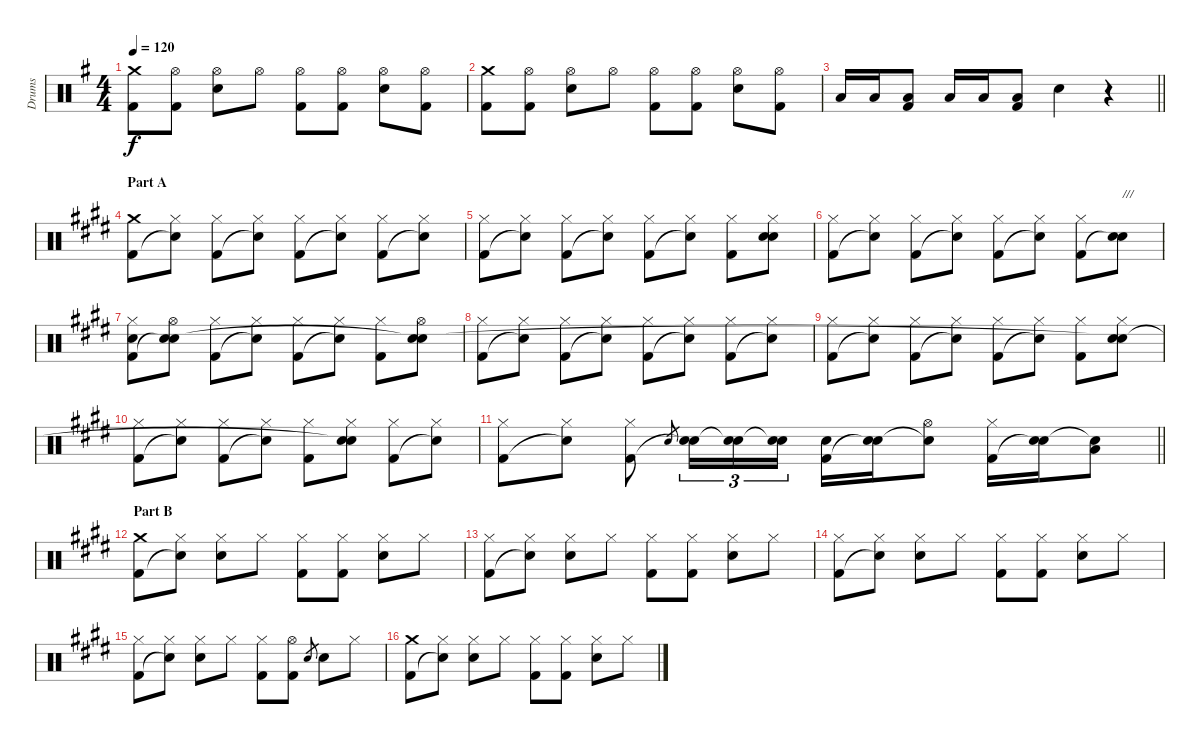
\track ("Drums" "Drums") {instrument percussion}
\staff {score}
\articulation defaults
\ts (4 4)
\tempo 120
\clef neutral
\ks g
("Crash medium (hit)" "Kick (hit) 2").8{dy f} ("Hi-Hat (open)" "Kick (hit) 2").8 ("Hi-Hat (open)" "Electric Snare (hit)").8 "Hi-Hat (open)".8 ("Hi-Hat (open)" "Kick (hit) 2").8 ("Hi-Hat (open)" "Kick (hit) 2").8 ("Hi-Hat (open)" "Electric Snare (hit)").8 ("Hi-Hat (open)" "Kick (hit) 2").8 |
("Crash medium (hit)" "Kick (hit) 2").8 ("Hi-Hat (open)" "Kick (hit) 2").8 ("Hi-Hat (open)" "Electric Snare (hit)").8 "Hi-Hat (open)".8 ("Hi-Hat (open)" "Kick (hit) 2").8 ("Hi-Hat (open)" "Kick (hit) 2").8 ("Hi-Hat (open)" "Electric Snare (hit)").8 ("Hi-Hat (open)" "Kick (hit) 2").8 |
\barLineRight lightlight "Low Tom (hit)".16 "Low Tom (hit)".16
("Low Tom (hit)" "Kick (hit) 2").8 "Low Floor Tom (hit)".16 "Low Floor Tom (hit)".16 ("Low Floor Tom (hit)" "Kick (hit) 2").8 "Electric Snare (hit)".4 r.4 |
\section ("" "Part A")
\ks e
("Crash medium (hit)" "Kick (hit) 2").8 ("Hi-Hat (closed)" "Snare (hit)"{t}).8 ("Hi-Hat (closed)" "Kick (hit) 2").8 ("Hi-Hat (closed)" "Snare (hit)"{t}).8 ("Hi-Hat (closed)" "Kick (hit) 2").8 ("Hi-Hat (closed)" "Snare (hit)"{t}).8 ("Hi-Hat (closed)" "Kick (hit) 2").8 ("Hi-Hat (closed)" "Snare (hit)"{t}).8 |
("Hi-Hat (closed)" "Kick (hit) 2").8 ("Hi-Hat (closed)" "Snare (hit)"{t}).8 ("Hi-Hat (closed)" "Kick (hit) 2").8 ("Hi-Hat (closed)" "Snare (hit)"{t}).8 ("Hi-Hat (closed)" "Kick (hit) 2").8 ("Hi-Hat (closed)" "Snare (hit)"{t}).8 ("Hi-Hat (closed)" "Kick (hit) 2").8 ("Hi-Hat (closed)" "Electric Snare (hit)" "Snare (hit)").8 |
("Hi-Hat (closed)" "Kick (hit) 2").8 ("Hi-Hat (closed)" "Snare (hit)"{t}).8 ("Hi-Hat (closed)" "Kick (hit) 2").8 ("Hi-Hat (closed)" "Snare (hit)"{t}).8 ("Hi-Hat (closed)" "Kick (hit) 2").8 ("Hi-Hat (closed)" "Snare (hit)"{t}).8 ("Hi-Hat (closed)" "Kick (hit) 2").8 ("Electric Snare (hit)" "Snare (hit)"{t}).8{txt "///"} |
("Hi-Hat (closed)" "Electric Snare (hit)" "Kick (hit) 2").8 ("Hi-Hat (open)" "Electric Snare (hit)" "Snare (hit)"{t}).8 ("Hi-Hat (closed)" "Kick (hit) 2").8 ("Hi-Hat (closed)" "Snare (hit)"{t}).8 ("Hi-Hat (closed)" "Kick (hit) 2").8 ("Hi-Hat (closed)" "Snare (hit)"{t}).8 ("Hi-Hat (closed)" "Kick (hit) 2").8 ("Hi-Hat (open)" "Electric Snare (hit)" "Snare (hit)"{t}).8 |
("Hi-Hat (closed)" "Kick (hit) 2").8 ("Hi-Hat (closed)" "Snare (hit)"{t}).8 ("Hi-Hat (closed)" "Kick (hit) 2").8 ("Hi-Hat (closed)" "Snare (hit)"{t}).8 ("Hi-Hat (closed)" "Kick (hit) 2").8 ("Hi-Hat (closed)" "Snare (hit)"{t}).8 ("Hi-Hat (closed)" "Kick (hit) 2").8 ("Hi-Hat (closed)" "Snare (hit)"{t}).8 |
("Hi-Hat (closed)" "Kick (hit) 2").8 ("Hi-Hat (closed)" "Snare (hit)"{t}).8 ("Hi-Hat (closed)" "Kick (hit) 2").8 ("Hi-Hat (closed)" "Snare (hit)"{t}).8 ("Hi-Hat (closed)" "Kick (hit) 2").8 ("Hi-Hat (closed)" "Snare (hit)"{t}).8 ("Hi-Hat (closed)" "Kick (hit) 2").8 ("Hi-Hat (closed)" "Electric Snare (hit)" "Snare (hit)"{t}).8 |
("Hi-Hat (closed)" "Kick (hit) 2").8 ("Hi-Hat (closed)" "Snare (hit)"{t}).8 ("Hi-Hat (closed)" "Kick (hit) 2").8 ("Hi-Hat (closed)" "Snare (hit)"{t}).8 ("Hi-Hat (closed)" "Kick (hit) 2").8 ("Hi-Hat (closed)" "Electric Snare (hit)" "Snare (hit)"{t}).8 ("Hi-Hat (closed)" "Kick (hit) 2").8 ("Hi-Hat (closed)" "Snare (hit)"{t}).8 |
\barLineRight lightlight
("Hi-Hat (closed)" "Kick (hit) 2").8 ("Hi-Hat (closed)" "Snare (hit)"{t}).8 ("Hi-Hat (closed)" "Kick (hit) 2").8 "Electric Snare (hit)".8{gr} ("Electric Snare (hit)" "Snare (hit)"{t}).16{tu (3 2)} ("Electric Snare (hit)" "Snare (hit)"{t}).16{tu (3 2)} ("Electric Snare (hit)" "Snare (hit)"{t}).16{tu (3 2)} ("Electric Snare (hit)" "Kick (hit) 2").16 ("Electric Snare (hit)" "Snare (hit)"{t}).16 ("Hi-Hat (open)" "Snare (hit)"{t}).8 ("Hi-Hat (closed)" "Kick (hit) 2").16 ("Electric Snare (hit)" "Snare (hit)"{t}).16 ("Low Floor Tom (hit)" "Snare (hit)"{t}).8 |
\section ("" "Part B")
("Crash medium (hit)" "Kick (hit) 2").8 ("Hi-Hat (closed)" "Snare (hit)"{t}).8 ("Hi-Hat (closed)" "Electric Snare (hit)").8 "Hi-Hat (closed)".8 ("Hi-Hat (closed)" "Kick (hit) 2").8 ("Hi-Hat (closed)" "Kick (hit) 2").8 ("Hi-Hat (closed)" "Electric Snare (hit)").8 "Hi-Hat (closed)".8 |
("Hi-Hat (closed)" "Kick (hit) 2").8 ("Hi-Hat (closed)" "Snare (hit)"{t}).8 ("Hi-Hat (closed)" "Electric Snare (hit)").8 "Hi-Hat (closed)".8 ("Hi-Hat (closed)" "Kick (hit) 2").8 ("Hi-Hat (closed)" "Kick (hit) 2").8 ("Hi-Hat (closed)" "Electric Snare (hit)").8 "Hi-Hat (closed)".8 |
("Hi-Hat (closed)" "Kick (hit) 2").8 ("Hi-Hat (closed)" "Snare (hit)"{t}).8 ("Hi-Hat (closed)" "Electric Snare (hit)").8 "Hi-Hat (closed)".8 ("Hi-Hat (closed)" "Kick (hit) 2").8 ("Hi-Hat (closed)" "Kick (hit) 2").8 ("Hi-Hat (closed)" "Electric Snare (hit)").8 "Hi-Hat (closed)".8 |
("Hi-Hat (closed)" "Kick (hit) 2").8 ("Hi-Hat (closed)" "Snare (hit)"{t}).8 ("Hi-Hat (closed)" "Electric Snare (hit)").8 "Hi-Hat (closed)".8 ("Hi-Hat (closed)" "Kick (hit) 2").8 ("Hi-Hat (open)" "Kick (hit) 2").8 "Electric Snare (hit)".8{gr} "Electric Snare (hit)".8 "Hi-Hat (closed)".8 |
("Crash medium (hit)" "Kick (hit) 2").8 ("Hi-Hat (closed)" "Snare (hit)"{t}).8 ("Hi-Hat (closed)" "Electric Snare (hit)").8 "Hi-Hat (closed)".8 ("Hi-Hat (closed)" "Kick (hit) 2").8 ("Hi-Hat (closed)" "Kick (hit) 2").8 ("Hi-Hat (closed)" "Electric Snare (hit)").8 "Hi-Hat (closed)".8
